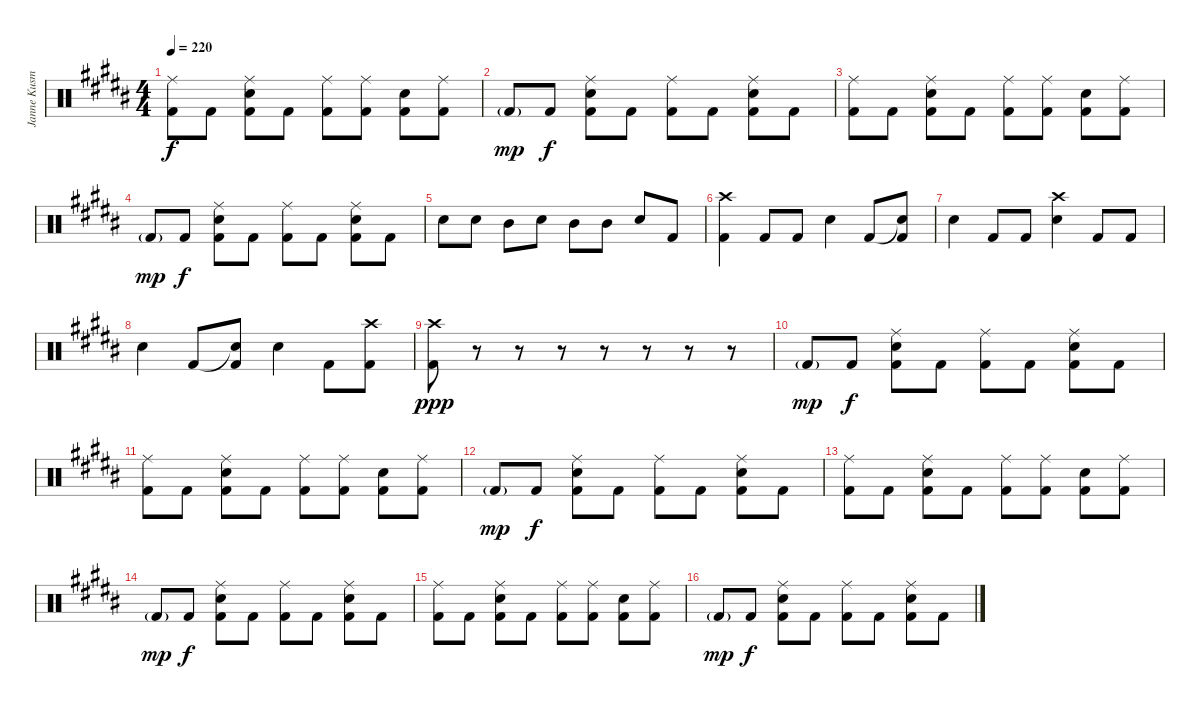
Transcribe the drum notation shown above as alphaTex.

\track ("Janne Kusmin" "Janne Kusm") {instrument percussion}
\staff {score}
\articulation defaults
\ts (4 4)
\tempo 220
\clef neutral
\ks b
("Ride (middle)" "Kick (hit) 2").8{dy f} "Kick (hit) 2".8 ("Ride (middle)" "Electric Snare (hit)" "Kick (hit) 2").8 "Kick (hit) 2".8 ("Ride (middle)" "Kick (hit) 2").8 ("Ride (middle)" "Kick (hit) 2").8 ("Electric Snare (hit)" "Kick (hit) 2").8 ("Ride (middle)" "Kick (hit) 2").8 |
\ks g#minor "Kick (hit) 2"{g}.8{dy mp} "Kick (hit) 2".8{dy f}
("Ride (middle)" "Electric Snare (hit)" "Kick (hit) 2").8 "Kick (hit) 2".8 ("Ride (middle)" "Kick (hit) 2").8 "Kick (hit) 2".8 ("Ride (middle)" "Electric Snare (hit)" "Kick (hit) 2").8 "Kick (hit) 2".8 |
\ks b
("Ride (middle)" "Kick (hit) 2").8 "Kick (hit) 2".8 ("Ride (middle)" "Electric Snare (hit)" "Kick (hit) 2").8 "Kick (hit) 2".8 ("Ride (middle)" "Kick (hit) 2").8 ("Ride (middle)" "Kick (hit) 2").8 ("Electric Snare (hit)" "Kick (hit) 2").8 ("Ride (middle)" "Kick (hit) 2").8 |
\ks g#minor "Kick (hit) 2"{g}.8{dy mp} "Kick (hit) 2".8{dy f}
("Ride (middle)" "Electric Snare (hit)" "Kick (hit) 2").8 "Kick (hit) 2".8 ("Ride (middle)" "Kick (hit) 2").8 "Kick (hit) 2".8 ("Ride (middle)" "Electric Snare (hit)" "Kick (hit) 2").8 "Kick (hit) 2".8 |
\ks b "Electric Snare (hit)".8 "Electric Snare (hit)".8 "Mid Tom (hit)".8 "Electric Snare (hit)".8 "Mid Tom (hit)".8 "Mid Tom (hit)".8 "Electric Snare (hit)".8 "Kick (hit) 2".8
|
("Crash high (hit)" "Kick (hit) 2").4 "Kick (hit) 2".8 "Kick (hit) 2".8 "Electric Snare (hit)".4 "Kick (hit) 2".8 ("Snare (hit)"{t} "Kick (hit) 2").8 |
\ks g#minor "Electric Snare (hit)".4 "Kick (hit) 2".8 "Kick (hit) 2".8
("Crash high (hit)" "Electric Snare (hit)").4 "Kick (hit) 2".8 "Kick (hit) 2".8 |
"Electric Snare (hit)".4 "Kick (hit) 2".8 ("Snare (hit)"{t} "Kick (hit) 2").8 "Electric Snare (hit)".4 "Kick (hit) 2".8 ("Crash high (hit)" "Kick (hit) 2").8 |
\ks b
("Crash high (hit)" "Kick (hit) 2").8{dy ppp} r.8 r.8 r.8 r.8 r.8 r.8 r.8 |
\ks g#minor "Kick (hit) 2"{g}.8{dy mp} "Kick (hit) 2".8{dy f}
("Ride (middle)" "Electric Snare (hit)" "Kick (hit) 2").8 "Kick (hit) 2".8 ("Ride (middle)" "Kick (hit) 2").8 "Kick (hit) 2".8 ("Ride (middle)" "Electric Snare (hit)" "Kick (hit) 2").8 "Kick (hit) 2".8 |
\ks b
("Ride (middle)" "Kick (hit) 2").8 "Kick (hit) 2".8 ("Ride (middle)" "Electric Snare (hit)" "Kick (hit) 2").8 "Kick (hit) 2".8 ("Ride (middle)" "Kick (hit) 2").8 ("Ride (middle)" "Kick (hit) 2").8 ("Electric Snare (hit)" "Kick (hit) 2").8 ("Ride (middle)" "Kick (hit) 2").8 |
\ks g#minor "Kick (hit) 2"{g}.8{dy mp} "Kick (hit) 2".8{dy f}
("Ride (middle)" "Electric Snare (hit)" "Kick (hit) 2").8 "Kick (hit) 2".8 ("Ride (middle)" "Kick (hit) 2").8 "Kick (hit) 2".8 ("Ride (middle)" "Electric Snare (hit)" "Kick (hit) 2").8 "Kick (hit) 2".8 |
\ks b
("Ride (middle)" "Kick (hit) 2").8 "Kick (hit) 2".8 ("Ride (middle)" "Electric Snare (hit)" "Kick (hit) 2").8 "Kick (hit) 2".8 ("Ride (middle)" "Kick (hit) 2").8 ("Ride (middle)" "Kick (hit) 2").8 ("Electric Snare (hit)" "Kick (hit) 2").8 ("Ride (middle)" "Kick (hit) 2").8 |
\ks g#minor "Kick (hit) 2"{g}.8{dy mp} "Kick (hit) 2".8{dy f}
("Ride (middle)" "Electric Snare (hit)" "Kick (hit) 2").8 "Kick (hit) 2".8 ("Ride (middle)" "Kick (hit) 2").8 "Kick (hit) 2".8 ("Ride (middle)" "Electric Snare (hit)" "Kick (hit) 2").8 "Kick (hit) 2".8 |
\ks b
("Ride (middle)" "Kick (hit) 2").8 "Kick (hit) 2".8 ("Ride (middle)" "Electric Snare (hit)" "Kick (hit) 2").8 "Kick (hit) 2".8 ("Ride (middle)" "Kick (hit) 2").8 ("Ride (middle)" "Kick (hit) 2").8 ("Electric Snare (hit)" "Kick (hit) 2").8 ("Ride (middle)" "Kick (hit) 2").8 |
\ks g#minor "Kick (hit) 2"{g}.8{dy mp} "Kick (hit) 2".8{dy f}
("Ride (middle)" "Electric Snare (hit)" "Kick (hit) 2").8 "Kick (hit) 2".8 ("Ride (middle)" "Kick (hit) 2").8 "Kick (hit) 2".8 ("Ride (middle)" "Electric Snare (hit)" "Kick (hit) 2").8 "Kick (hit) 2".8
